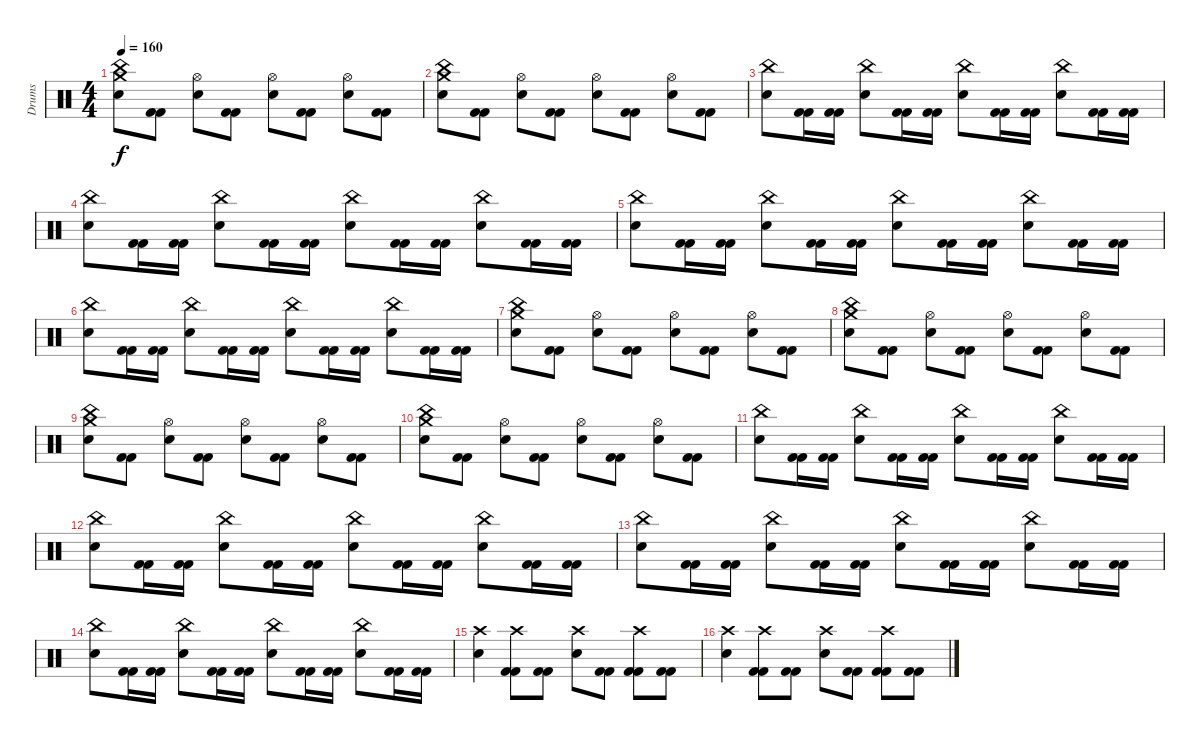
\track ("Drums" "Drums") {instrument percussion}
\staff {score}
\articulation defaults
\ts (4 4)
\tempo 160
\clef neutral
\ks c
("Crash medium (hit)" "China (hit)" "Electric Snare (hit)").8{dy f} ("Kick (hit) 2" "Kick (hit) 2").8 ("Hi-Hat (open)" "Electric Snare (hit)").8 ("Kick (hit) 2" "Kick (hit) 2").8 ("Hi-Hat (open)" "Electric Snare (hit)").8 ("Kick (hit) 2" "Kick (hit) 2").8 ("Hi-Hat (open)" "Electric Snare (hit)").8 ("Kick (hit) 2" "Kick (hit) 2").8 |
("Crash medium (hit)" "China (hit)" "Electric Snare (hit)").8 ("Kick (hit) 2" "Kick (hit) 2").8 ("Hi-Hat (open)" "Electric Snare (hit)").8 ("Kick (hit) 2" "Kick (hit) 2").8 ("Hi-Hat (open)" "Electric Snare (hit)").8 ("Kick (hit) 2" "Kick (hit) 2").8 ("Hi-Hat (open)" "Electric Snare (hit)").8 ("Kick (hit) 2" "Kick (hit) 2").8 |
("China (hit)" "Electric Snare (hit)").8 ("Kick (hit) 2" "Kick (hit) 2").16 ("Kick (hit) 2" "Kick (hit) 2").16 ("Electric Snare (hit)" "China (hit)").8 ("Kick (hit) 2" "Kick (hit) 2").16 ("Kick (hit) 2" "Kick (hit) 2").16 ("China (hit)" "Electric Snare (hit)").8 ("Kick (hit) 2" "Kick (hit) 2").16 ("Kick (hit) 2" "Kick (hit) 2").16 ("Electric Snare (hit)" "China (hit)").8 ("Kick (hit) 2" "Kick (hit) 2").16 ("Kick (hit) 2" "Kick (hit) 2").16 |
("China (hit)" "Electric Snare (hit)").8 ("Kick (hit) 2" "Kick (hit) 2").16 ("Kick (hit) 2" "Kick (hit) 2").16 ("Electric Snare (hit)" "China (hit)").8 ("Kick (hit) 2" "Kick (hit) 2").16 ("Kick (hit) 2" "Kick (hit) 2").16 ("China (hit)" "Electric Snare (hit)").8 ("Kick (hit) 2" "Kick (hit) 2").16 ("Kick (hit) 2" "Kick (hit) 2").16 ("Electric Snare (hit)" "China (hit)").8 ("Kick (hit) 2" "Kick (hit) 2").16 ("Kick (hit) 2" "Kick (hit) 2").16 |
("China (hit)" "Electric Snare (hit)").8 ("Kick (hit) 2" "Kick (hit) 2").16 ("Kick (hit) 2" "Kick (hit) 2").16 ("Electric Snare (hit)" "China (hit)").8 ("Kick (hit) 2" "Kick (hit) 2").16 ("Kick (hit) 2" "Kick (hit) 2").16 ("China (hit)" "Electric Snare (hit)").8 ("Kick (hit) 2" "Kick (hit) 2").16 ("Kick (hit) 2" "Kick (hit) 2").16 ("Electric Snare (hit)" "China (hit)").8 ("Kick (hit) 2" "Kick (hit) 2").16 ("Kick (hit) 2" "Kick (hit) 2").16 |
("China (hit)" "Electric Snare (hit)").8 ("Kick (hit) 2" "Kick (hit) 2").16 ("Kick (hit) 2" "Kick (hit) 2").16 ("Electric Snare (hit)" "China (hit)").8 ("Kick (hit) 2" "Kick (hit) 2").16 ("Kick (hit) 2" "Kick (hit) 2").16 ("China (hit)" "Electric Snare (hit)").8 ("Kick (hit) 2" "Kick (hit) 2").16 ("Kick (hit) 2" "Kick (hit) 2").16 ("Electric Snare (hit)" "China (hit)").8 ("Kick (hit) 2" "Kick (hit) 2").16 ("Kick (hit) 2" "Kick (hit) 2").16 |
("Crash medium (hit)" "China (hit)" "Electric Snare (hit)").8 ("Kick (hit) 2" "Kick (hit) 2").8 ("Hi-Hat (open)" "Electric Snare (hit)").8 ("Kick (hit) 2" "Kick (hit) 2").8 ("Hi-Hat (open)" "Electric Snare (hit)").8 ("Kick (hit) 2" "Kick (hit) 2").8 ("Hi-Hat (open)" "Electric Snare (hit)").8 ("Kick (hit) 2" "Kick (hit) 2").8 |
("Crash medium (hit)" "China (hit)" "Electric Snare (hit)").8 ("Kick (hit) 2" "Kick (hit) 2").8 ("Hi-Hat (open)" "Electric Snare (hit)").8 ("Kick (hit) 2" "Kick (hit) 2").8 ("Hi-Hat (open)" "Electric Snare (hit)").8 ("Kick (hit) 2" "Kick (hit) 2").8 ("Hi-Hat (open)" "Electric Snare (hit)").8 ("Kick (hit) 2" "Kick (hit) 2").8 |
("Crash medium (hit)" "China (hit)" "Electric Snare (hit)").8 ("Kick (hit) 2" "Kick (hit) 2").8 ("Hi-Hat (open)" "Electric Snare (hit)").8 ("Kick (hit) 2" "Kick (hit) 2").8 ("Hi-Hat (open)" "Electric Snare (hit)").8 ("Kick (hit) 2" "Kick (hit) 2").8 ("Hi-Hat (open)" "Electric Snare (hit)").8 ("Kick (hit) 2" "Kick (hit) 2").8 |
("Crash medium (hit)" "China (hit)" "Electric Snare (hit)").8 ("Kick (hit) 2" "Kick (hit) 2").8 ("Hi-Hat (open)" "Electric Snare (hit)").8 ("Kick (hit) 2" "Kick (hit) 2").8 ("Hi-Hat (open)" "Electric Snare (hit)").8 ("Kick (hit) 2" "Kick (hit) 2").8 ("Hi-Hat (open)" "Electric Snare (hit)").8 ("Kick (hit) 2" "Kick (hit) 2").8 |
("China (hit)" "Electric Snare (hit)").8 ("Kick (hit) 2" "Kick (hit) 2").16 ("Kick (hit) 2" "Kick (hit) 2").16 ("Electric Snare (hit)" "China (hit)").8 ("Kick (hit) 2" "Kick (hit) 2").16 ("Kick (hit) 2" "Kick (hit) 2").16 ("China (hit)" "Electric Snare (hit)").8 ("Kick (hit) 2" "Kick (hit) 2").16 ("Kick (hit) 2" "Kick (hit) 2").16 ("Electric Snare (hit)" "China (hit)").8 ("Kick (hit) 2" "Kick (hit) 2").16 ("Kick (hit) 2" "Kick (hit) 2").16 |
("China (hit)" "Electric Snare (hit)").8 ("Kick (hit) 2" "Kick (hit) 2").16 ("Kick (hit) 2" "Kick (hit) 2").16 ("Electric Snare (hit)" "China (hit)").8 ("Kick (hit) 2" "Kick (hit) 2").16 ("Kick (hit) 2" "Kick (hit) 2").16 ("China (hit)" "Electric Snare (hit)").8 ("Kick (hit) 2" "Kick (hit) 2").16 ("Kick (hit) 2" "Kick (hit) 2").16 ("Electric Snare (hit)" "China (hit)").8 ("Kick (hit) 2" "Kick (hit) 2").16 ("Kick (hit) 2" "Kick (hit) 2").16 |
("China (hit)" "Electric Snare (hit)").8 ("Kick (hit) 2" "Kick (hit) 2").16 ("Kick (hit) 2" "Kick (hit) 2").16 ("Electric Snare (hit)" "China (hit)").8 ("Kick (hit) 2" "Kick (hit) 2").16 ("Kick (hit) 2" "Kick (hit) 2").16 ("China (hit)" "Electric Snare (hit)").8 ("Kick (hit) 2" "Kick (hit) 2").16 ("Kick (hit) 2" "Kick (hit) 2").16 ("Electric Snare (hit)" "China (hit)").8 ("Kick (hit) 2" "Kick (hit) 2").16 ("Kick (hit) 2" "Kick (hit) 2").16 |
("China (hit)" "Electric Snare (hit)").8 ("Kick (hit) 2" "Kick (hit) 2").16 ("Kick (hit) 2" "Kick (hit) 2").16 ("Electric Snare (hit)" "China (hit)").8 ("Kick (hit) 2" "Kick (hit) 2").16 ("Kick (hit) 2" "Kick (hit) 2").16 ("China (hit)" "Electric Snare (hit)").8 ("Kick (hit) 2" "Kick (hit) 2").16 ("Kick (hit) 2" "Kick (hit) 2").16 ("Electric Snare (hit)" "China (hit)").8 ("Kick (hit) 2" "Kick (hit) 2").16 ("Kick (hit) 2" "Kick (hit) 2").16 |
("Crash high (hit)" "Electric Snare (hit)").4 ("Crash high (hit)" "Kick (hit) 2" "Kick (hit) 2").8 ("Kick (hit) 2" "Kick (hit) 2").8 ("Electric Snare (hit)" "Crash high (hit)").8 ("Kick (hit) 2" "Kick (hit) 2").8 ("Crash high (hit)" "Kick (hit) 2" "Kick (hit) 2").8 ("Kick (hit) 2" "Kick (hit) 2").8 |
("Crash high (hit)" "Electric Snare (hit)").4 ("Crash high (hit)" "Kick (hit) 2" "Kick (hit) 2").8 ("Kick (hit) 2" "Kick (hit) 2").8 ("Electric Snare (hit)" "Crash high (hit)").8 ("Kick (hit) 2" "Kick (hit) 2").8 ("Crash high (hit)" "Kick (hit) 2" "Kick (hit) 2").8 ("Kick (hit) 2" "Kick (hit) 2").8
